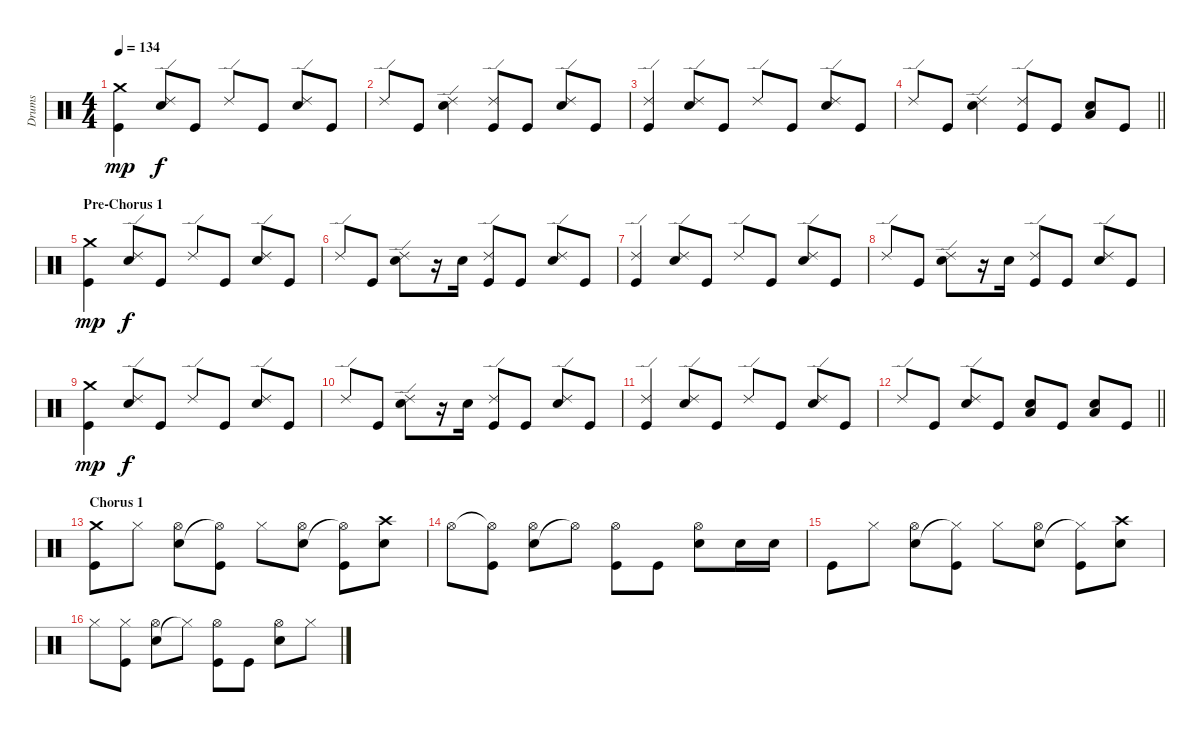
\track ("Drums" "Drums") {instrument percussion}
\staff {score}
\articulation defaults
\ts (4 4)
\tempo 134
\clef neutral
\ks c
("Crash medium (hit)" "Kick (hit)").4{dy mp} ("Ride (edge) 2" "Snare (hit) 2").8{dy f} "Kick (hit)".8 "Ride (edge) 2".8 "Kick (hit)".8 ("Ride (edge) 2" "Snare (hit) 2").8 "Kick (hit)".8 |
"Ride (edge) 2".8 "Kick (hit)".8 ("Ride (edge) 2" "Snare (hit) 2").4 ("Ride (edge) 2" "Kick (hit)").8 "Kick (hit)".8 ("Ride (edge) 2" "Snare (hit) 2").8 "Kick (hit)".8 |
("Ride (edge) 2" "Kick (hit)").4 ("Ride (edge) 2" "Snare (hit) 2").8 "Kick (hit)".8 "Ride (edge) 2".8 "Kick (hit)".8 ("Ride (edge) 2" "Snare (hit) 2").8 "Kick (hit)".8 |
\barLineRight lightlight "Ride (edge) 2".8 "Kick (hit)".8
("Ride (edge) 2" "Snare (hit) 2").4 ("Ride (edge) 2" "Kick (hit)").8 "Kick (hit)".8 ("Snare (hit) 2" "Low Floor Tom (hit)").8 "Kick (hit)".8 |
\section ("" "Pre-Chorus 1")
("Crash medium (hit)" "Kick (hit)").4{dy mp} ("Ride (edge) 2" "Snare (hit) 2").8{dy f} "Kick (hit)".8 "Ride (edge) 2".8 "Kick (hit)".8 ("Ride (edge) 2" "Snare (hit) 2").8 "Kick (hit)".8 |
"Ride (edge) 2".8 "Kick (hit)".8 ("Ride (edge) 2" "Snare (hit) 2").8 r.16 "Snare (hit) 2".16 ("Ride (edge) 2" "Kick (hit)").8 "Kick (hit)".8 ("Ride (edge) 2" "Snare (hit) 2").8 "Kick (hit)".8 |
("Ride (edge) 2" "Kick (hit)").4 ("Ride (edge) 2" "Snare (hit) 2").8 "Kick (hit)".8 "Ride (edge) 2".8 "Kick (hit)".8 ("Ride (edge) 2" "Snare (hit) 2").8 "Kick (hit)".8 |
"Ride (edge) 2".8 "Kick (hit)".8 ("Ride (edge) 2" "Snare (hit) 2").8 r.16 "Snare (hit) 2".16 ("Ride (edge) 2" "Kick (hit)").8 "Kick (hit)".8 ("Ride (edge) 2" "Snare (hit) 2").8 "Kick (hit)".8 |
("Crash medium (hit)" "Kick (hit)").4{dy mp} ("Ride (edge) 2" "Snare (hit) 2").8{dy f} "Kick (hit)".8 "Ride (edge) 2".8 "Kick (hit)".8 ("Ride (edge) 2" "Snare (hit) 2").8 "Kick (hit)".8 |
"Ride (edge) 2".8 "Kick (hit)".8 ("Ride (edge) 2" "Snare (hit) 2").8 r.16 "Snare (hit) 2".16 ("Ride (edge) 2" "Kick (hit)").8 "Kick (hit)".8 ("Ride (edge) 2" "Snare (hit) 2").8 "Kick (hit)".8 |
("Ride (edge) 2" "Kick (hit)").4 ("Ride (edge) 2" "Snare (hit) 2").8 "Kick (hit)".8 "Ride (edge) 2".8 "Kick (hit)".8 ("Ride (edge) 2" "Snare (hit) 2").8 "Kick (hit)".8 |
\barLineRight lightlight "Ride (edge) 2".8 "Kick (hit)".8
("Ride (edge) 2" "Snare (hit) 2").8 "Kick (hit)".8 ("Snare (hit) 2" "Low Floor Tom (hit)").8 "Kick (hit)".8 ("Snare (hit) 2" "Low Floor Tom (hit)").8 "Kick (hit)".8 |
\section ("" "Chorus 1")
("Crash medium (hit)" "Kick (hit)").8 "Hi-Hat (closed)".8 ("Snare (hit) 2" "Hi-Hat (open)").8 ("Hi-Hat (open)"{t} "Kick (hit)").8 "Hi-Hat (closed)".8 ("Snare (hit) 2" "Hi-Hat (open)").8 ("Hi-Hat (open)"{t} "Kick (hit)").8 ("Crash high (hit)" "Snare (hit) 2").8 |
"Hi-Hat (open)".8 ("Hi-Hat (open)"{t} "Kick (hit)").8 ("Snare (hit) 2" "Hi-Hat (open)").8 "Hi-Hat (open)"{t}.8 ("Hi-Hat (open)" "Kick (hit)").8 "Kick (hit)".8 ("Snare (hit) 2" "Hi-Hat (open)").8 "Snare (hit) 2".16 "Snare (hit) 2".16 |
"Kick (hit)".8 "Hi-Hat (closed)".8 ("Snare (hit) 2" "Hi-Hat (open)").8 ("Hi-Hat (closed)"{t} "Kick (hit)").8 "Hi-Hat (closed)".8 ("Snare (hit) 2" "Hi-Hat (open)").8 ("Hi-Hat (closed)"{t} "Kick (hit)").8 ("Crash high (hit)" "Snare (hit) 2").8 |
"Hi-Hat (closed)".8 ("Hi-Hat (closed)" "Kick (hit)").8 ("Snare (hit) 2" "Hi-Hat (open)").8 "Hi-Hat (closed)"{t}.8 ("Hi-Hat (open)" "Kick (hit)").8 "Kick (hit)".8 ("Snare (hit) 2" "Hi-Hat (open)").8 "Hi-Hat (closed)".8
